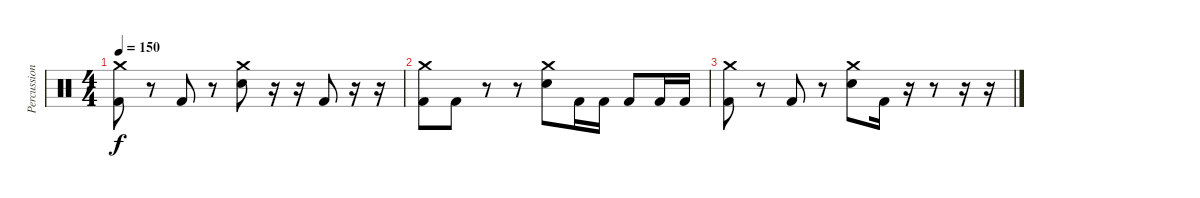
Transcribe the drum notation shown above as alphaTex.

\track ("Percussion" "Percussion") {instrument percussion}
\staff {score}
\articulation defaults
\ts (4 4)
\tempo 150
\clef neutral
\ks c
("Crash medium (hit)" "Kick (hit) 2").8{dy f} r.8 "Kick (hit) 2".8 r.8 ("Crash medium (hit)" "Snare (hit) 2").8 r.16 r.16 "Kick (hit) 2".8 r.16 r.16 |
("Crash medium (hit)" "Kick (hit) 2").8 "Kick (hit) 2".8 r.8 r.8 ("Crash medium (hit)" "Snare (hit) 2").8 "Kick (hit) 2".16 "Kick (hit) 2".16 "Kick (hit) 2".8 "Kick (hit) 2".16 "Kick (hit) 2".16 |
("Crash medium (hit)" "Kick (hit) 2").8 r.8 "Kick (hit) 2".8 r.8 ("Crash medium (hit)" "Snare (hit) 2").8 "Kick (hit) 2".16 r.16 r.8 r.16 r.16
